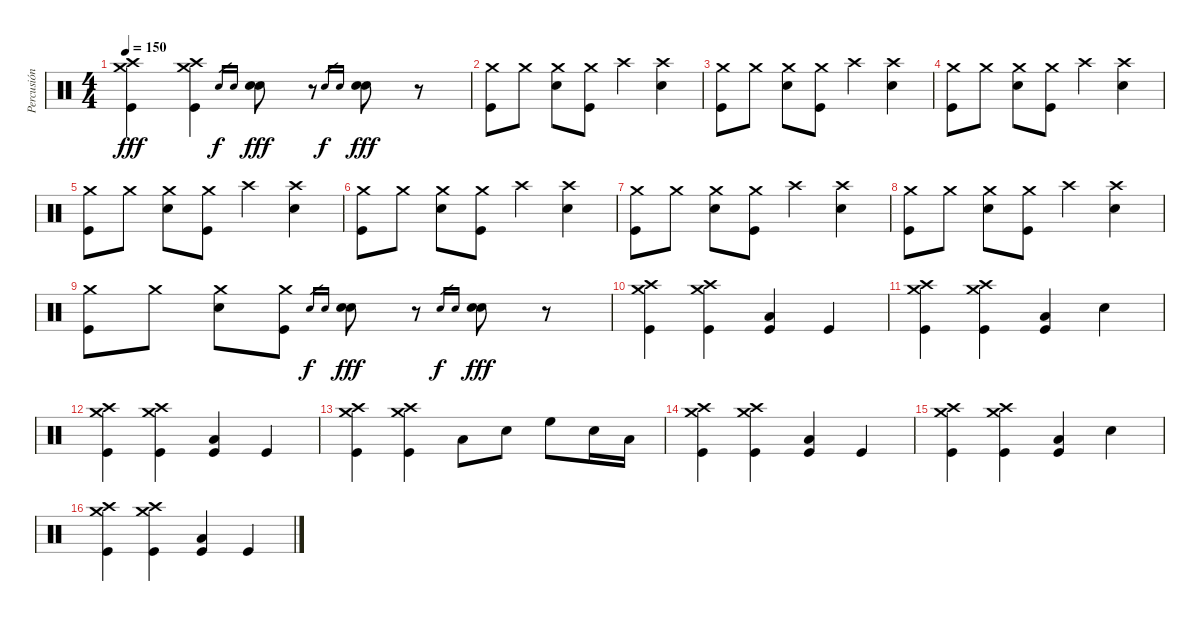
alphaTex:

\track ("Percusión" "Percusión") {instrument percussion}
\staff {score}
\articulation defaults
\ts (4 4)
\tempo 150
\clef neutral
\ks c
("Kick (hit)" "Crash high (hit)" "Crash medium (hit)").4{dy fff} ("Kick (hit)" "Crash high (hit)" "Crash medium (hit)").4 "Electric Snare (hit)".16{gr dy f} "Electric Snare (hit)".16{gr} ("Electric Snare (hit)" "Electric Snare (hit)").8{dy fff} r.8 "Electric Snare (hit)".16{gr dy f} "Electric Snare (hit)".16{gr} ("Electric Snare (hit)" "Electric Snare (hit)").8{dy fff} r.8 |
("Crash medium (hit)" "Kick (hit)").8 "Crash medium (hit)".8 ("Crash medium (hit)" "Electric Snare (hit)").8 ("Crash medium (hit)" "Kick (hit)").8 "Crash high (hit)".4 ("Crash high (hit)" "Electric Snare (hit)").4 |
("Crash medium (hit)" "Kick (hit)").8 "Crash medium (hit)".8 ("Crash medium (hit)" "Electric Snare (hit)").8 ("Crash medium (hit)" "Kick (hit)").8 "Crash high (hit)".4 ("Crash high (hit)" "Electric Snare (hit)").4 |
("Crash medium (hit)" "Kick (hit)").8 "Crash medium (hit)".8 ("Crash medium (hit)" "Electric Snare (hit)").8 ("Crash medium (hit)" "Kick (hit)").8 "Crash high (hit)".4 ("Crash high (hit)" "Electric Snare (hit)").4 |
("Crash medium (hit)" "Kick (hit)").8 "Crash medium (hit)".8 ("Crash medium (hit)" "Electric Snare (hit)").8 ("Crash medium (hit)" "Kick (hit)").8 "Crash high (hit)".4 ("Crash high (hit)" "Electric Snare (hit)").4 |
("Crash medium (hit)" "Kick (hit)").8 "Crash medium (hit)".8 ("Crash medium (hit)" "Electric Snare (hit)").8 ("Crash medium (hit)" "Kick (hit)").8 "Crash high (hit)".4 ("Crash high (hit)" "Electric Snare (hit)").4 |
("Crash medium (hit)" "Kick (hit)").8 "Crash medium (hit)".8 ("Crash medium (hit)" "Electric Snare (hit)").8 ("Crash medium (hit)" "Kick (hit)").8 "Crash high (hit)".4 ("Crash high (hit)" "Electric Snare (hit)").4 |
("Crash medium (hit)" "Kick (hit)").8 "Crash medium (hit)".8 ("Crash medium (hit)" "Electric Snare (hit)").8 ("Crash medium (hit)" "Kick (hit)").8 "Crash high (hit)".4 ("Crash high (hit)" "Electric Snare (hit)").4 |
("Crash medium (hit)" "Kick (hit)").8 "Crash medium (hit)".8 ("Crash medium (hit)" "Electric Snare (hit)").8 ("Crash medium (hit)" "Kick (hit)").8 "Electric Snare (hit)".16{gr dy f} "Electric Snare (hit)".16{gr} ("Electric Snare (hit)" "Electric Snare (hit)").8{dy fff} r.8 "Electric Snare (hit)".16{gr dy f} "Electric Snare (hit)".16{gr} ("Electric Snare (hit)" "Electric Snare (hit)").8{dy fff} r.8 |
("Kick (hit)" "Crash high (hit)" "Crash medium (hit)").4 ("Kick (hit)" "Crash high (hit)" "Crash medium (hit)").4 ("Kick (hit)" "Low Floor Tom (hit)").4 "Kick (hit)".4 |
("Kick (hit)" "Crash high (hit)" "Crash medium (hit)").4 ("Kick (hit)" "Crash high (hit)" "Crash medium (hit)").4 ("Kick (hit)" "Low Floor Tom (hit)").4 "Electric Snare (hit)".4 |
("Kick (hit)" "Crash high (hit)" "Crash medium (hit)").4 ("Kick (hit)" "Crash high (hit)" "Crash medium (hit)").4 ("Kick (hit)" "Low Floor Tom (hit)").4 "Kick (hit)".4 |
("Kick (hit)" "Crash high (hit)" "Crash medium (hit)").4 ("Kick (hit)" "Crash high (hit)" "Crash medium (hit)").4 "Low Floor Tom (hit)".8 "Electric Snare (hit)".8 "High Floor Tom (hit)".8 "Electric Snare (hit)".16 "Low Floor Tom (hit)".16 |
("Kick (hit)" "Crash high (hit)" "Crash medium (hit)").4 ("Kick (hit)" "Crash high (hit)" "Crash medium (hit)").4 ("Kick (hit)" "Low Floor Tom (hit)").4 "Kick (hit)".4 |
("Kick (hit)" "Crash high (hit)" "Crash medium (hit)").4 ("Kick (hit)" "Crash high (hit)" "Crash medium (hit)").4 ("Kick (hit)" "Low Floor Tom (hit)").4 "Electric Snare (hit)".4 |
("Kick (hit)" "Crash high (hit)" "Crash medium (hit)").4 ("Kick (hit)" "Crash high (hit)" "Crash medium (hit)").4 ("Kick (hit)" "Low Floor Tom (hit)").4 "Kick (hit)".4
